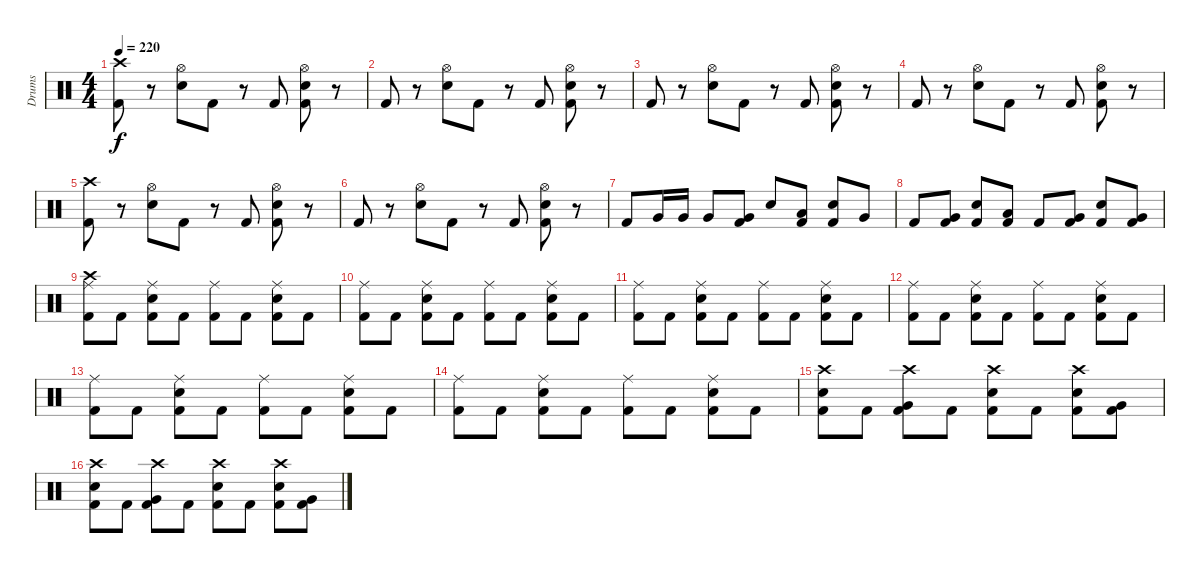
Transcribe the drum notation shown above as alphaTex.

\track ("Drums" "Drums") {instrument percussion}
\staff {score}
\articulation defaults
\ts (4 4)
\tempo 220
\clef neutral
\ks c
("Crash high (hit)" "Kick (hit) 2").8{dy f} r.8 ("Electric Snare (hit)" "Hi-Hat (open)").8 "Kick (hit) 2".8 r.8 "Kick (hit) 2".8 ("Electric Snare (hit)" "Hi-Hat (open)" "Kick (hit) 2").8 r.8 |
"Kick (hit) 2".8 r.8 ("Electric Snare (hit)" "Hi-Hat (open)").8 "Kick (hit) 2".8 r.8 "Kick (hit) 2".8 ("Electric Snare (hit)" "Hi-Hat (open)" "Kick (hit) 2").8 r.8 |
"Kick (hit) 2".8 r.8 ("Electric Snare (hit)" "Hi-Hat (open)").8 "Kick (hit) 2".8 r.8 "Kick (hit) 2".8 ("Electric Snare (hit)" "Hi-Hat (open)" "Kick (hit) 2").8 r.8 |
"Kick (hit) 2".8 r.8 ("Electric Snare (hit)" "Hi-Hat (open)").8 "Kick (hit) 2".8 r.8 "Kick (hit) 2".8 ("Electric Snare (hit)" "Hi-Hat (open)" "Kick (hit) 2").8 r.8 |
("Crash high (hit)" "Kick (hit) 2").8 r.8 ("Electric Snare (hit)" "Hi-Hat (open)").8 "Kick (hit) 2".8 r.8 "Kick (hit) 2".8 ("Electric Snare (hit)" "Hi-Hat (open)" "Kick (hit) 2").8 r.8 |
"Kick (hit) 2".8 r.8 ("Electric Snare (hit)" "Hi-Hat (open)").8 "Kick (hit) 2".8 r.8 "Kick (hit) 2".8 ("Electric Snare (hit)" "Hi-Hat (open)" "Kick (hit) 2").8 r.8 |
"Kick (hit) 2".8 "Very Low Tom (hit)".16 "Very Low Tom (hit)".16 "Very Low Tom (hit)".8 ("Very Low Tom (hit)" "Kick (hit) 2").8 "Electric Snare (hit)".8 ("Low Tom (hit)" "Kick (hit) 2").8 ("Electric Snare (hit)" "Kick (hit) 2").8 "Very Low Tom (hit)".8 |
"Kick (hit) 2".8 ("Very Low Tom (hit)" "Kick (hit) 2").8 ("Electric Snare (hit)" "Kick (hit) 2").8 ("Low Tom (hit)" "Kick (hit) 2").8 "Kick (hit) 2".8 ("Very Low Tom (hit)" "Kick (hit) 2").8 ("Electric Snare (hit)" "Kick (hit) 2").8 ("Very Low Tom (hit)" "Kick (hit) 2").8 |
("Crash high (hit)" "Ride (middle)" "Kick (hit) 2").8 "Kick (hit) 2".8 ("Electric Snare (hit)" "Ride (middle)" "Kick (hit) 2").8 "Kick (hit) 2".8 ("Ride (middle)" "Kick (hit) 2").8 "Kick (hit) 2".8 ("Electric Snare (hit)" "Ride (middle)" "Kick (hit) 2").8 "Kick (hit) 2".8 |
("Ride (middle)" "Kick (hit) 2").8 "Kick (hit) 2".8 ("Electric Snare (hit)" "Ride (middle)" "Kick (hit) 2").8 "Kick (hit) 2".8 ("Ride (middle)" "Kick (hit) 2").8 "Kick (hit) 2".8 ("Electric Snare (hit)" "Ride (middle)" "Kick (hit) 2").8 "Kick (hit) 2".8 |
("Ride (middle)" "Kick (hit) 2").8 "Kick (hit) 2".8 ("Electric Snare (hit)" "Ride (middle)" "Kick (hit) 2").8 "Kick (hit) 2".8 ("Ride (middle)" "Kick (hit) 2").8 "Kick (hit) 2".8 ("Electric Snare (hit)" "Ride (middle)" "Kick (hit) 2").8 "Kick (hit) 2".8 |
("Ride (middle)" "Kick (hit) 2").8 "Kick (hit) 2".8 ("Electric Snare (hit)" "Ride (middle)" "Kick (hit) 2").8 "Kick (hit) 2".8 ("Ride (middle)" "Kick (hit) 2").8 "Kick (hit) 2".8 ("Electric Snare (hit)" "Ride (middle)" "Kick (hit) 2").8 "Kick (hit) 2".8 |
("Ride (middle)" "Kick (hit) 2").8 "Kick (hit) 2".8 ("Electric Snare (hit)" "Ride (middle)" "Kick (hit) 2").8 "Kick (hit) 2".8 ("Ride (middle)" "Kick (hit) 2").8 "Kick (hit) 2".8 ("Electric Snare (hit)" "Ride (middle)" "Kick (hit) 2").8 "Kick (hit) 2".8 |
("Ride (middle)" "Kick (hit) 2").8 "Kick (hit) 2".8 ("Electric Snare (hit)" "Ride (middle)" "Kick (hit) 2").8 "Kick (hit) 2".8 ("Ride (middle)" "Kick (hit) 2").8 "Kick (hit) 2".8 ("Electric Snare (hit)" "Ride (middle)" "Kick (hit) 2").8 "Kick (hit) 2".8 |
("Crash high (hit)" "Electric Snare (hit)" "Kick (hit) 2").8 "Kick (hit) 2".8 ("Crash high (hit)" "Very Low Tom (hit)" "Kick (hit) 2").8 "Kick (hit) 2".8 ("Crash high (hit)" "Electric Snare (hit)" "Kick (hit) 2").8 "Kick (hit) 2".8 ("Crash high (hit)" "Electric Snare (hit)" "Kick (hit) 2").8 ("Very Low Tom (hit)" "Kick (hit) 2").8 |
("Crash high (hit)" "Electric Snare (hit)" "Kick (hit) 2").8 "Kick (hit) 2".8 ("Crash high (hit)" "Very Low Tom (hit)" "Kick (hit) 2").8 "Kick (hit) 2".8 ("Crash high (hit)" "Electric Snare (hit)" "Kick (hit) 2").8 "Kick (hit) 2".8 ("Crash high (hit)" "Electric Snare (hit)" "Kick (hit) 2").8 ("Very Low Tom (hit)" "Kick (hit) 2").8
